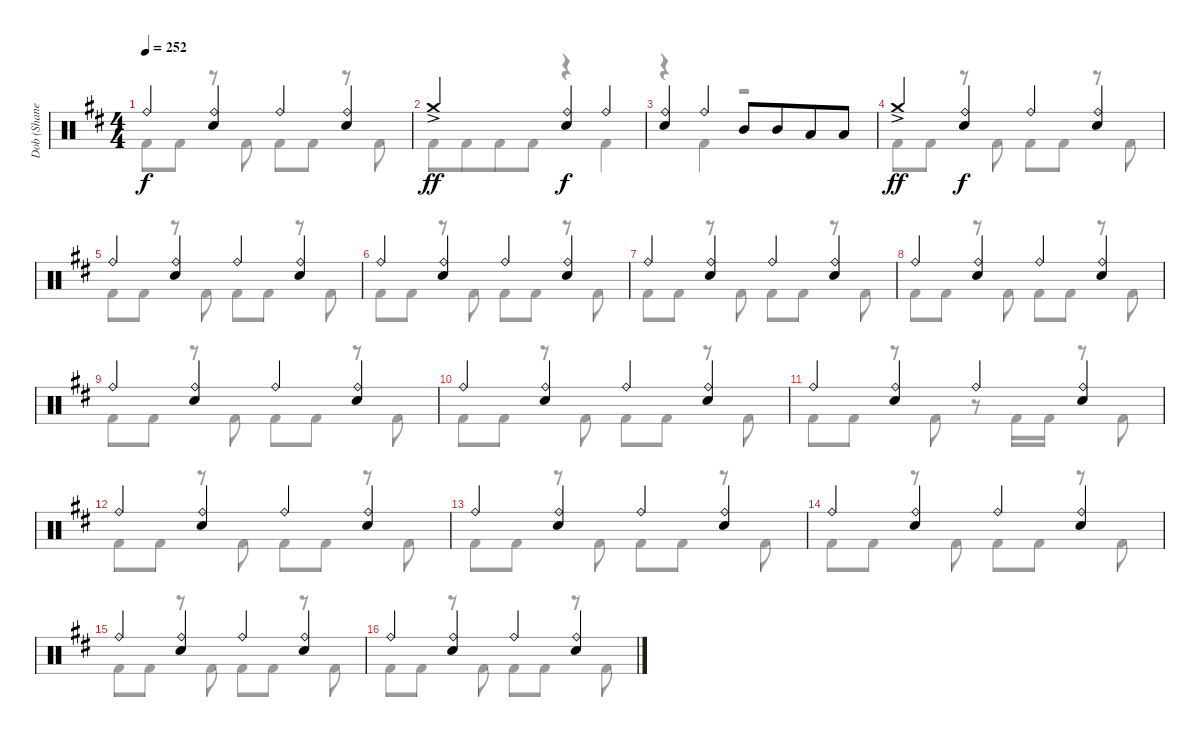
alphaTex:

\track ("Dob (Shane Gaalaas)" "Dob (Shane") {instrument percussion}
\staff {score}
\articulation defaults
\voice
\ts (4 4)
\tempo 252
\clef neutral
\ks d "Ride (bell)".4{dy f}
("Ride (bell)" "Electric Snare (hit)").4 "Ride (bell)".4 ("Ride (bell)" "Electric Snare (hit)").4 |
"Crash medium (hit)"{ac}.2{dy ff} ("Ride (bell)" "Electric Snare (hit)").4{dy f} "Ride (bell)".4 |
("Ride (bell)" "Electric Snare (hit)").4 "Ride (bell)".4 "Mid Tom (hit)".8 "Mid Tom (hit)".8{beam merge} "Low Tom (hit)".8 "Low Tom (hit)".8 |
"Crash medium (hit)"{ac}.4{dy ff} ("Ride (bell)" "Electric Snare (hit)").4{dy f} "Ride (bell)".4 ("Ride (bell)" "Electric Snare (hit)").4 |
"Ride (bell)".4 ("Ride (bell)" "Electric Snare (hit)").4 "Ride (bell)".4 ("Ride (bell)" "Electric Snare (hit)").4 |
"Ride (bell)".4 ("Ride (bell)" "Electric Snare (hit)").4 "Ride (bell)".4 ("Ride (bell)" "Electric Snare (hit)").4 |
"Ride (bell)".4 ("Ride (bell)" "Electric Snare (hit)").4 "Ride (bell)".4 ("Ride (bell)" "Electric Snare (hit)").4 |
"Ride (bell)".4 ("Ride (bell)" "Electric Snare (hit)").4 "Ride (bell)".4 ("Ride (bell)" "Electric Snare (hit)").4 |
"Ride (bell)".4 ("Ride (bell)" "Electric Snare (hit)").4 "Ride (bell)".4 ("Ride (bell)" "Electric Snare (hit)").4 |
"Ride (bell)".4 ("Ride (bell)" "Electric Snare (hit)").4 "Ride (bell)".4 ("Ride (bell)" "Electric Snare (hit)").4 |
"Ride (bell)".4 ("Ride (bell)" "Electric Snare (hit)").4 "Ride (bell)".4 ("Ride (bell)" "Electric Snare (hit)").4 |
"Ride (bell)".4 ("Ride (bell)" "Electric Snare (hit)").4 "Ride (bell)".4 ("Ride (bell)" "Electric Snare (hit)").4 |
"Ride (bell)".4 ("Ride (bell)" "Electric Snare (hit)").4 "Ride (bell)".4 ("Ride (bell)" "Electric Snare (hit)").4 |
"Ride (bell)".4 ("Ride (bell)" "Electric Snare (hit)").4 "Ride (bell)".4 ("Ride (bell)" "Electric Snare (hit)").4 |
"Ride (bell)".4 ("Ride (bell)" "Electric Snare (hit)").4 "Ride (bell)".4 ("Ride (bell)" "Electric Snare (hit)").4 |
"Ride (bell)".4 ("Ride (bell)" "Electric Snare (hit)").4 "Ride (bell)".4 ("Ride (bell)" "Electric Snare (hit)").4
\voice
\clef neutral
\ottava regular
\simile none
\ks d "Kick (hit) 2".8{dy f} "Kick (hit) 2".8
r.8 "Kick (hit) 2".8 "Kick (hit) 2".8 "Kick (hit) 2".8 r.8 "Kick (hit) 2".8 |
"Kick (hit) 2".8 "Kick (hit) 2".8{beam merge} "Kick (hit) 2".8 "Kick (hit) 2".8 r.4 "Kick (hit) 2".4 |
r.4 "Kick (hit) 2".4 r.2 |
"Kick (hit) 2".8 "Kick (hit) 2".8 r.8 "Kick (hit) 2".8 "Kick (hit) 2".8 "Kick (hit) 2".8 r.8 "Kick (hit) 2".8 |
"Kick (hit) 2".8 "Kick (hit) 2".8 r.8 "Kick (hit) 2".8 "Kick (hit) 2".8 "Kick (hit) 2".8 r.8 "Kick (hit) 2".8 |
"Kick (hit) 2".8 "Kick (hit) 2".8 r.8 "Kick (hit) 2".8 "Kick (hit) 2".8 "Kick (hit) 2".8 r.8 "Kick (hit) 2".8 |
"Kick (hit) 2".8 "Kick (hit) 2".8 r.8 "Kick (hit) 2".8 "Kick (hit) 2".8 "Kick (hit) 2".8 r.8 "Kick (hit) 2".8 |
"Kick (hit) 2".8 "Kick (hit) 2".8 r.8 "Kick (hit) 2".8 "Kick (hit) 2".8 "Kick (hit) 2".8 r.8 "Kick (hit) 2".8 |
"Kick (hit) 2".8 "Kick (hit) 2".8 r.8 "Kick (hit) 2".8 "Kick (hit) 2".8 "Kick (hit) 2".8 r.8 "Kick (hit) 2".8 |
"Kick (hit) 2".8 "Kick (hit) 2".8 r.8 "Kick (hit) 2".8 "Kick (hit) 2".8 "Kick (hit) 2".8 r.8 "Kick (hit) 2".8 |
"Kick (hit) 2".8 "Kick (hit) 2".8 r.8 "Kick (hit) 2".8 r.8 "Kick (hit) 2".16 "Kick (hit) 2".16 r.8 "Kick (hit) 2".8 |
"Kick (hit) 2".8 "Kick (hit) 2".8 r.8 "Kick (hit) 2".8 "Kick (hit) 2".8 "Kick (hit) 2".8 r.8 "Kick (hit) 2".8 |
"Kick (hit) 2".8 "Kick (hit) 2".8 r.8 "Kick (hit) 2".8 "Kick (hit) 2".8 "Kick (hit) 2".8 r.8 "Kick (hit) 2".8 |
"Kick (hit) 2".8 "Kick (hit) 2".8 r.8 "Kick (hit) 2".8 "Kick (hit) 2".8 "Kick (hit) 2".8 r.8 "Kick (hit) 2".8 |
"Kick (hit) 2".8 "Kick (hit) 2".8 r.8 "Kick (hit) 2".8 "Kick (hit) 2".8 "Kick (hit) 2".8 r.8 "Kick (hit) 2".8 |
"Kick (hit) 2".8 "Kick (hit) 2".8 r.8 "Kick (hit) 2".8 "Kick (hit) 2".8 "Kick (hit) 2".8 r.8 "Kick (hit) 2".8
